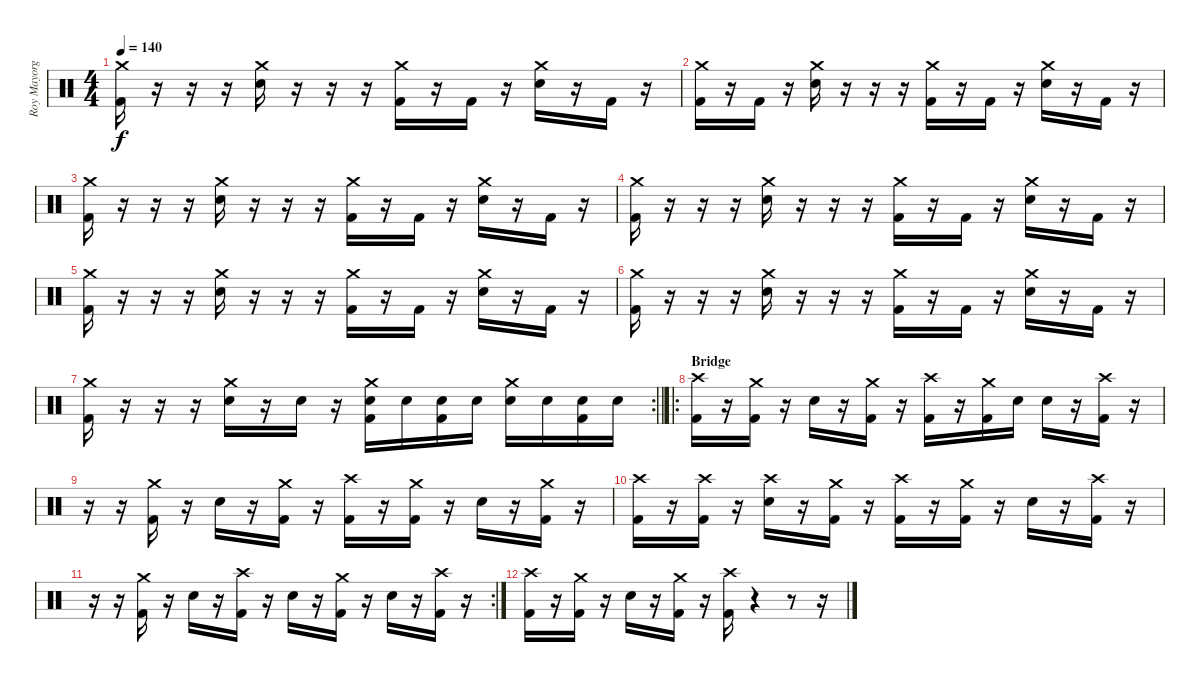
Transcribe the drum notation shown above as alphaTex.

\track ("Roy Mayorga" "Roy Mayorg") {instrument percussion}
\staff {score}
\articulation defaults
\ts (4 4)
\tempo 140
\clef neutral
\ks c
("Crash medium (hit)" "Kick (hit) 2").16{dy f} r.16 r.16 r.16 ("Crash medium (hit)" "Snare (hit) 2").16 r.16 r.16 r.16 ("Crash medium (hit)" "Kick (hit) 2").16 r.16 "Kick (hit) 2".16 r.16 ("Crash medium (hit)" "Snare (hit) 2").16 r.16 "Kick (hit) 2".16 r.16 |
("Crash medium (hit)" "Kick (hit) 2").16 r.16 "Kick (hit) 2".16 r.16 ("Crash medium (hit)" "Snare (hit) 2").16 r.16 r.16 r.16 ("Crash medium (hit)" "Kick (hit) 2").16 r.16 "Kick (hit) 2".16 r.16 ("Crash medium (hit)" "Snare (hit) 2").16 r.16 "Kick (hit) 2".16 r.16 |
("Crash medium (hit)" "Kick (hit) 2").16 r.16 r.16 r.16 ("Crash medium (hit)" "Snare (hit) 2").16 r.16 r.16 r.16 ("Crash medium (hit)" "Kick (hit) 2").16 r.16 "Kick (hit) 2".16 r.16 ("Crash medium (hit)" "Snare (hit) 2").16 r.16 "Kick (hit) 2".16 r.16 |
("Crash medium (hit)" "Kick (hit) 2").16 r.16 r.16 r.16 ("Crash medium (hit)" "Snare (hit) 2").16 r.16 r.16 r.16 ("Crash medium (hit)" "Kick (hit) 2").16 r.16 "Kick (hit) 2".16 r.16 ("Crash medium (hit)" "Snare (hit) 2").16 r.16 "Kick (hit) 2".16 r.16 |
("Crash medium (hit)" "Kick (hit) 2").16 r.16 r.16 r.16 ("Crash medium (hit)" "Snare (hit) 2").16 r.16 r.16 r.16 ("Crash medium (hit)" "Kick (hit) 2").16 r.16 "Kick (hit) 2".16 r.16 ("Crash medium (hit)" "Snare (hit) 2").16 r.16 "Kick (hit) 2".16 r.16 |
("Crash medium (hit)" "Kick (hit) 2").16 r.16 r.16 r.16 ("Crash medium (hit)" "Snare (hit) 2").16 r.16 r.16 r.16 ("Crash medium (hit)" "Kick (hit) 2").16 r.16 "Kick (hit) 2".16 r.16 ("Crash medium (hit)" "Snare (hit) 2").16 r.16 "Kick (hit) 2".16 r.16 |
\rc 2
\barLineRight lightlight
("Crash medium (hit)" "Kick (hit) 2").16 r.16 r.16 r.16 ("Crash medium (hit)" "Snare (hit) 2").16 r.16 "Snare (hit) 2".16 r.16 ("Crash medium (hit)" "Snare (hit) 2" "Kick (hit) 2").16 "Snare (hit) 2".16 ("Snare (hit) 2" "Kick (hit) 2").16 "Snare (hit) 2".16 ("Crash medium (hit)" "Snare (hit) 2").16 "Snare (hit) 2".16 ("Snare (hit) 2" "Kick (hit) 2").16 "Snare (hit) 2".16 |
\ro
\section ("" "Bridge")
("Crash high (hit)" "Kick (hit) 2").16 r.16 ("Crash medium (hit)" "Kick (hit) 2").16 r.16 "Snare (hit) 2".16 r.16 ("Crash medium (hit)" "Kick (hit) 2").16 r.16 ("Crash high (hit)" "Kick (hit) 2").16 r.16 ("Crash medium (hit)" "Kick (hit) 2").16 "Snare (hit) 2".16 "Snare (hit) 2".16 r.16 ("Crash high (hit)" "Kick (hit) 2").16 r.16 |
r.16 r.16 ("Crash medium (hit)" "Kick (hit) 2").16 r.16 "Snare (hit) 2".16 r.16 ("Crash medium (hit)" "Kick (hit) 2").16 r.16 ("Crash high (hit)" "Kick (hit) 2").16 r.16 ("Crash medium (hit)" "Kick (hit) 2").16 r.16 "Snare (hit) 2".16 r.16 ("Crash medium (hit)" "Kick (hit) 2").16 r.16 |
("Crash high (hit)" "Kick (hit) 2").16 r.16 ("Crash high (hit)" "Kick (hit) 2").16 r.16 ("Crash high (hit)" "Snare (hit) 2").16 r.16 ("Crash medium (hit)" "Kick (hit) 2").16 r.16 ("Crash high (hit)" "Kick (hit) 2").16 r.16 ("Crash medium (hit)" "Kick (hit) 2").16 r.16 "Snare (hit) 2".16 r.16 ("Crash high (hit)" "Kick (hit) 2").16 r.16 |
\rc 2
r.16 r.16 ("Crash medium (hit)" "Kick (hit) 2").16 r.16 "Snare (hit) 2".16 r.16 ("Crash high (hit)" "Kick (hit) 2").16 r.16 "Snare (hit) 2".16 r.16 ("Crash medium (hit)" "Kick (hit) 2").16 r.16 "Snare (hit) 2".16 r.16 ("Crash high (hit)" "Kick (hit) 2").16 r.16 |
("Crash high (hit)" "Kick (hit) 2").16 r.16 ("Crash medium (hit)" "Kick (hit) 2").16 r.16 "Snare (hit) 2".16 r.16 ("Crash medium (hit)" "Kick (hit) 2").16 r.16 ("Crash high (hit)" "Kick (hit) 2").16 r.4 r.8 r.16
